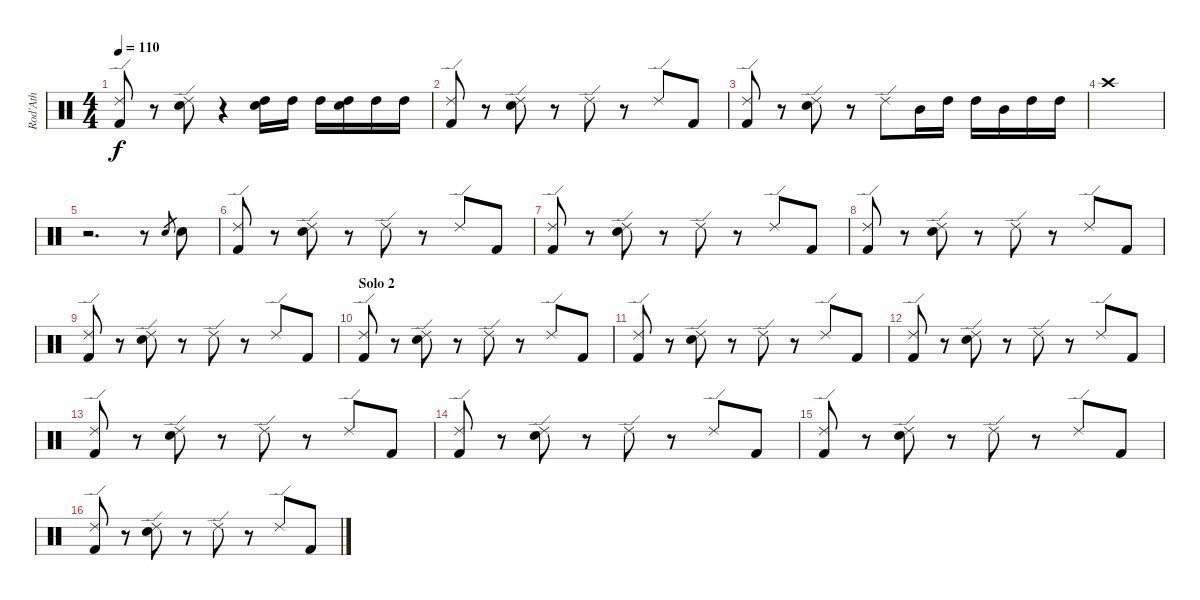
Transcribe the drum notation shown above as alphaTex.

\track ("Rod'Ath" "Rod'Ath") {instrument percussion}
\staff {score}
\articulation defaults
\ts (4 4)
\tempo 110
\clef neutral
\ks c
("Kick (hit) 2" "Ride (edge) 2").8{dy f} r.8 ("Electric Snare (hit)" "Ride (edge) 2").8 r.4 ("High Tom (hit)" "Electric Snare (hit)").16 "High Tom (hit)".16 "High Tom (hit)".16 ("High Tom (hit)" "Electric Snare (hit)").16 "High Tom (hit)".16 "High Tom (hit)".16 |
("Kick (hit) 2" "Ride (edge) 2").8 r.8 ("Electric Snare (hit)" "Ride (edge) 2").8 r.8 "Ride (edge) 2".8 r.8 "Ride (edge) 2".8 "Kick (hit) 2".8 |
("Kick (hit) 2" "Ride (edge) 2").8 r.8 ("Electric Snare (hit)" "Ride (edge) 2").8 r.8 "Ride (edge) 2".8 "Mid Tom (hit)".16 "High Tom (hit)".16 "High Tom (hit)".16 "Mid Tom (hit)".16 "High Tom (hit)".16 "High Tom (hit)".16 |
"Crash high (hit)".1 |
r.2{d} r.8 "Electric Snare (hit)".8{gr} "Electric Snare (hit)".8 |
("Kick (hit) 2" "Ride (edge) 2").8 r.8 ("Electric Snare (hit)" "Ride (edge) 2").8 r.8 "Ride (edge) 2".8 r.8 "Ride (edge) 2".8 "Kick (hit) 2".8 |
("Kick (hit) 2" "Ride (edge) 2").8 r.8 ("Electric Snare (hit)" "Ride (edge) 2").8 r.8 "Ride (edge) 2".8 r.8 "Ride (edge) 2".8 "Kick (hit) 2".8 |
("Kick (hit) 2" "Ride (edge) 2").8 r.8 ("Electric Snare (hit)" "Ride (edge) 2").8 r.8 "Ride (edge) 2".8 r.8 "Ride (edge) 2".8 "Kick (hit) 2".8 |
("Kick (hit) 2" "Ride (edge) 2").8 r.8 ("Electric Snare (hit)" "Ride (edge) 2").8 r.8 "Ride (edge) 2".8 r.8 "Ride (edge) 2".8 "Kick (hit) 2".8 |
\section ("" "Solo 2")
("Kick (hit) 2" "Ride (edge) 2").8 r.8 ("Electric Snare (hit)" "Ride (edge) 2").8 r.8 "Ride (edge) 2".8 r.8 "Ride (edge) 2".8 "Kick (hit) 2".8 |
("Kick (hit) 2" "Ride (edge) 2").8 r.8 ("Electric Snare (hit)" "Ride (edge) 2").8 r.8 "Ride (edge) 2".8 r.8 "Ride (edge) 2".8 "Kick (hit) 2".8 |
("Kick (hit) 2" "Ride (edge) 2").8 r.8 ("Electric Snare (hit)" "Ride (edge) 2").8 r.8 "Ride (edge) 2".8 r.8 "Ride (edge) 2".8 "Kick (hit) 2".8 |
("Kick (hit) 2" "Ride (edge) 2").8 r.8 ("Electric Snare (hit)" "Ride (edge) 2").8 r.8 "Ride (edge) 2".8 r.8 "Ride (edge) 2".8 "Kick (hit) 2".8 |
("Kick (hit) 2" "Ride (edge) 2").8 r.8 ("Electric Snare (hit)" "Ride (edge) 2").8 r.8 "Ride (edge) 2".8 r.8 "Ride (edge) 2".8 "Kick (hit) 2".8 |
("Kick (hit) 2" "Ride (edge) 2").8 r.8 ("Electric Snare (hit)" "Ride (edge) 2").8 r.8 "Ride (edge) 2".8 r.8 "Ride (edge) 2".8 "Kick (hit) 2".8 |
("Kick (hit) 2" "Ride (edge) 2").8 r.8 ("Electric Snare (hit)" "Ride (edge) 2").8 r.8 "Ride (edge) 2".8 r.8 "Ride (edge) 2".8 "Kick (hit) 2".8
